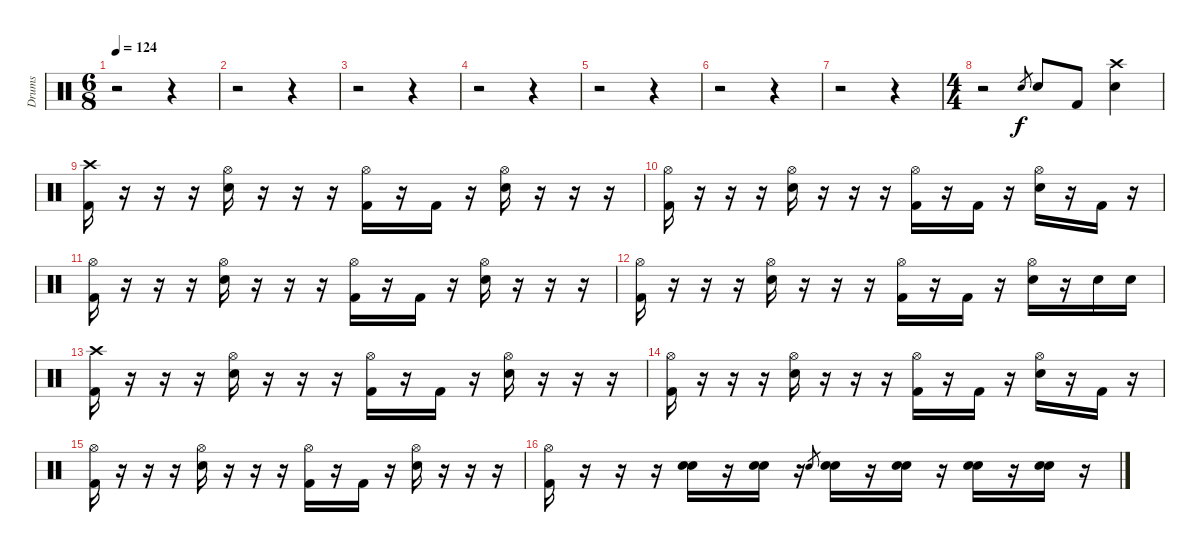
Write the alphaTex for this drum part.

\track ("Drums" "Drums") {instrument percussion}
\staff {score}
\articulation defaults
\ts (6 8)
\tempo 124
\clef neutral
\ks c
r.2{dy f} r.4 |
r.2 r.4 |
r.2 r.4 |
r.2 r.4 |
r.2 r.4 |
r.2 r.4 |
r.2 r.4 |
\ts (4 4)
r.2 "Snare (hit) 2".8{gr} "Snare (hit) 2".8 "Kick (hit) 2".8 ("Crash high (hit)" "Snare (hit) 2").4 |
("Crash high (hit)" "Kick (hit) 2").16 r.16 r.16 r.16 ("Hi-Hat (open)" "Snare (hit) 2").16 r.16 r.16 r.16 ("Hi-Hat (open)" "Kick (hit) 2").16 r.16 "Kick (hit) 2".16 r.16 ("Hi-Hat (open)" "Snare (hit) 2").16 r.16 r.16 r.16 |
("Hi-Hat (open)" "Kick (hit) 2").16 r.16 r.16 r.16 ("Hi-Hat (open)" "Snare (hit) 2").16 r.16 r.16 r.16 ("Hi-Hat (open)" "Kick (hit) 2").16 r.16 "Kick (hit) 2".16 r.16 ("Hi-Hat (open)" "Snare (hit) 2").16 r.16 "Kick (hit) 2".16 r.16 |
("Hi-Hat (open)" "Kick (hit) 2").16 r.16 r.16 r.16 ("Hi-Hat (open)" "Snare (hit) 2").16 r.16 r.16 r.16 ("Hi-Hat (open)" "Kick (hit) 2").16 r.16 "Kick (hit) 2".16 r.16 ("Hi-Hat (open)" "Snare (hit) 2").16 r.16 r.16 r.16 |
("Hi-Hat (open)" "Kick (hit) 2").16 r.16 r.16 r.16 ("Hi-Hat (open)" "Snare (hit) 2").16 r.16 r.16 r.16 ("Hi-Hat (open)" "Kick (hit) 2").16 r.16 "Kick (hit) 2".16 r.16 ("Hi-Hat (open)" "Snare (hit) 2").16 r.16 "Snare (hit) 2".16 "Snare (hit) 2".16 |
("Crash high (hit)" "Kick (hit) 2").16 r.16 r.16 r.16 ("Hi-Hat (open)" "Snare (hit) 2").16 r.16 r.16 r.16 ("Hi-Hat (open)" "Kick (hit) 2").16 r.16 "Kick (hit) 2".16 r.16 ("Hi-Hat (open)" "Snare (hit) 2").16 r.16 r.16 r.16 |
("Hi-Hat (open)" "Kick (hit) 2").16 r.16 r.16 r.16 ("Hi-Hat (open)" "Snare (hit) 2").16 r.16 r.16 r.16 ("Hi-Hat (open)" "Kick (hit) 2").16 r.16 "Kick (hit) 2".16 r.16 ("Hi-Hat (open)" "Snare (hit) 2").16 r.16 "Kick (hit) 2".16 r.16 |
("Hi-Hat (open)" "Kick (hit) 2").16 r.16 r.16 r.16 ("Hi-Hat (open)" "Snare (hit) 2").16 r.16 r.16 r.16 ("Hi-Hat (open)" "Kick (hit) 2").16 r.16 "Kick (hit) 2".16 r.16 ("Hi-Hat (open)" "Snare (hit) 2").16 r.16 r.16 r.16 |
("Hi-Hat (open)" "Kick (hit) 2").16 r.16 r.16 r.16 ("Snare (hit) 2" "Snare (hit) 2").16 r.16 ("Snare (hit) 2" "Snare (hit) 2").16 r.16 "Snare (hit) 2".8{gr} ("Snare (hit) 2" "Snare (hit) 2").16 r.16 ("Snare (hit) 2" "Snare (hit) 2").16 r.16 ("Snare (hit) 2" "Snare (hit) 2").16 r.16 ("Snare (hit) 2" "Snare (hit) 2").16 r.16
